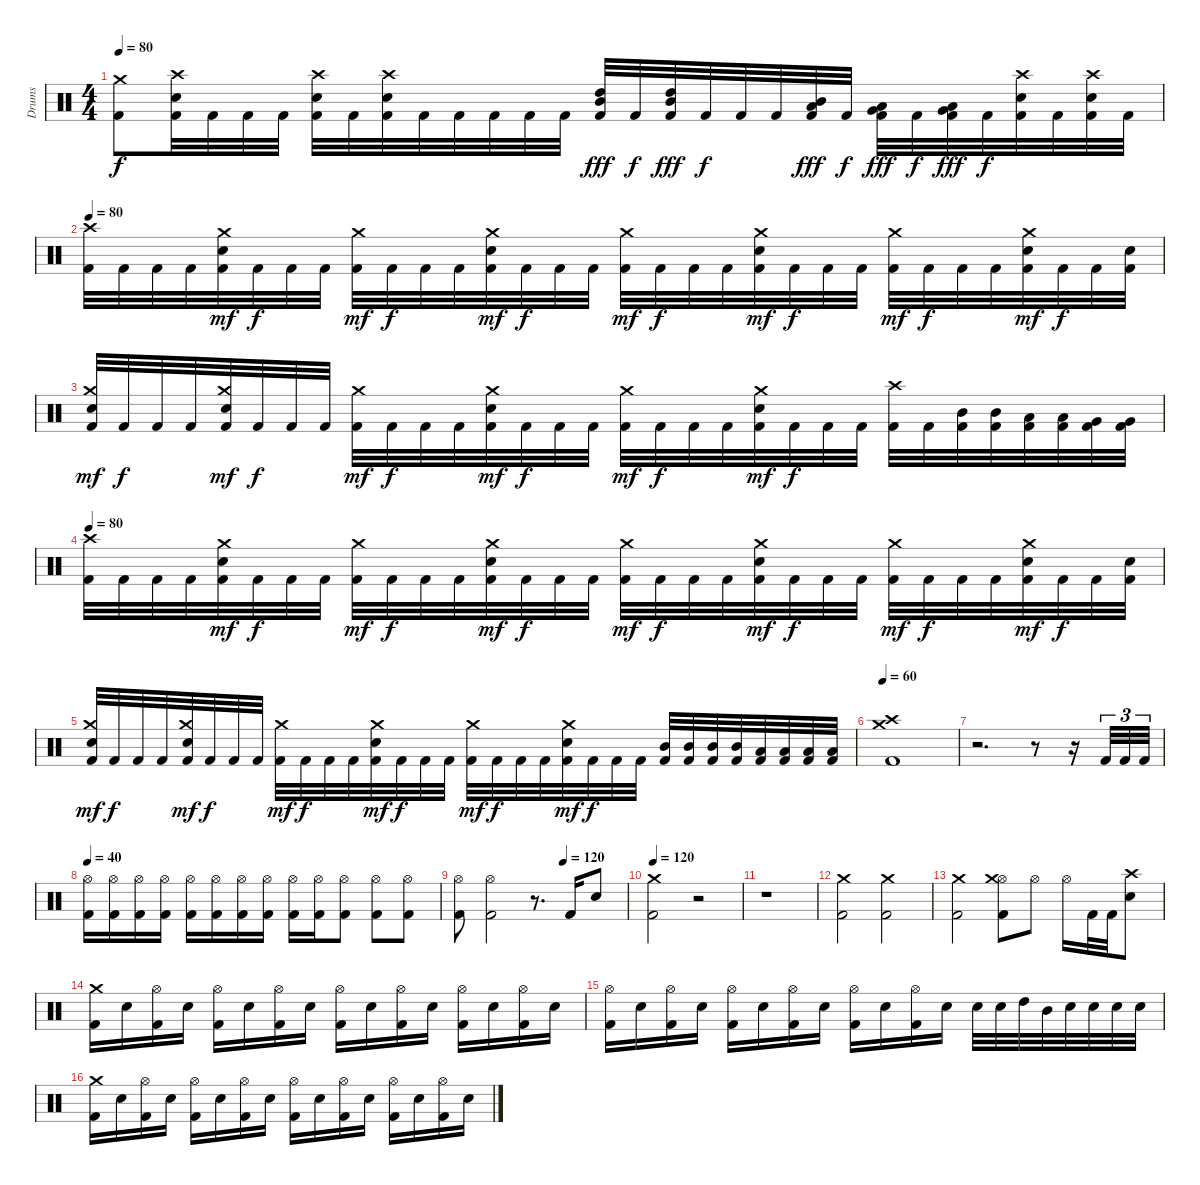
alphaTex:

\track ("Drums" "Drums") {instrument percussion}
\staff {score}
\articulation defaults
\ts (4 4)
\tempo 80
\clef neutral
\ks c
("Kick (hit) 2" "Crash medium (hit)").8{dy f} ("Kick (hit) 2" "Electric Snare (hit)" "Crash high (hit)").32 "Kick (hit) 2".32 "Kick (hit) 2".32 "Kick (hit) 2".32 ("Kick (hit) 2" "Electric Snare (hit)" "Crash high (hit)").32 "Kick (hit) 2".32 ("Kick (hit) 2" "Electric Snare (hit)" "Crash high (hit)").32 "Kick (hit) 2".32 "Kick (hit) 2".32 "Kick (hit) 2".32 "Kick (hit) 2".32 "Kick (hit) 2".32 ("Kick (hit) 2" "Mid Tom (hit)" "High Tom (hit)").32{dy fff} "Kick (hit) 2".32{dy f} ("Kick (hit) 2" "Mid Tom (hit)" "High Tom (hit)").32{dy fff} "Kick (hit) 2".32{dy f} "Kick (hit) 2".32 "Kick (hit) 2".32 ("Kick (hit) 2" "Low Tom (hit)" "Mid Tom (hit)").32{dy fff} "Kick (hit) 2".32{dy f} ("Kick (hit) 2" "Very Low Tom (hit)" "Low Tom (hit)").32{dy fff} "Kick (hit) 2".32{dy f} ("Kick (hit) 2" "Very Low Tom (hit)" "Low Tom (hit)").32{dy fff} "Kick (hit) 2".32{dy f} ("Kick (hit) 2" "Electric Snare (hit)" "Crash high (hit)").32 "Kick (hit) 2".32 ("Kick (hit) 2" "Electric Snare (hit)" "Crash high (hit)").32 "Kick (hit) 2".32 |
\tempo 80
("Kick (hit) 2" "Crash high (hit)").32 "Kick (hit) 2".32 "Kick (hit) 2".32 "Kick (hit) 2".32 ("Kick (hit) 2" "Electric Snare (hit)" "Crash medium (hit)").32{dy mf} "Kick (hit) 2".32{dy f} "Kick (hit) 2".32 "Kick (hit) 2".32 ("Kick (hit) 2" "Crash medium (hit)").32{dy mf} "Kick (hit) 2".32{dy f} "Kick (hit) 2".32 "Kick (hit) 2".32 ("Kick (hit) 2" "Electric Snare (hit)" "Crash medium (hit)").32{dy mf} "Kick (hit) 2".32{dy f} "Kick (hit) 2".32 "Kick (hit) 2".32 ("Kick (hit) 2" "Crash medium (hit)").32{dy mf} "Kick (hit) 2".32{dy f} "Kick (hit) 2".32 "Kick (hit) 2".32 ("Kick (hit) 2" "Electric Snare (hit)" "Crash medium (hit)").32{dy mf} "Kick (hit) 2".32{dy f} "Kick (hit) 2".32 "Kick (hit) 2".32 ("Kick (hit) 2" "Crash medium (hit)").32{dy mf} "Kick (hit) 2".32{dy f} "Kick (hit) 2".32 "Kick (hit) 2".32 ("Kick (hit) 2" "Electric Snare (hit)" "Crash medium (hit)").32{dy mf} "Kick (hit) 2".32{dy f} "Kick (hit) 2".32 ("Kick (hit) 2" "Electric Snare (hit)").32 |
("Kick (hit) 2" "Electric Snare (hit)" "Crash medium (hit)").32{dy mf} "Kick (hit) 2".32{dy f} "Kick (hit) 2".32 "Kick (hit) 2".32 ("Kick (hit) 2" "Electric Snare (hit)" "Crash medium (hit)").32{dy mf} "Kick (hit) 2".32{dy f} "Kick (hit) 2".32 "Kick (hit) 2".32 ("Kick (hit) 2" "Crash medium (hit)").32{dy mf} "Kick (hit) 2".32{dy f} "Kick (hit) 2".32 "Kick (hit) 2".32 ("Kick (hit) 2" "Electric Snare (hit)" "Crash medium (hit)").32{dy mf} "Kick (hit) 2".32{dy f} "Kick (hit) 2".32 "Kick (hit) 2".32 ("Kick (hit) 2" "Crash medium (hit)").32{dy mf} "Kick (hit) 2".32{dy f} "Kick (hit) 2".32 "Kick (hit) 2".32 ("Kick (hit) 2" "Electric Snare (hit)" "Crash medium (hit)").32{dy mf} "Kick (hit) 2".32{dy f} "Kick (hit) 2".32 "Kick (hit) 2".32 ("Kick (hit) 2" "Crash high (hit)").32 "Kick (hit) 2".32 ("Kick (hit) 2" "Mid Tom (hit)").32 ("Kick (hit) 2" "Mid Tom (hit)").32 ("Kick (hit) 2" "Low Tom (hit)").32 ("Kick (hit) 2" "Low Tom (hit)").32 ("Kick (hit) 2" "Very Low Tom (hit)").32 ("Kick (hit) 2" "Very Low Tom (hit)").32 |
\tempo 80
("Kick (hit) 2" "Crash high (hit)").32 "Kick (hit) 2".32 "Kick (hit) 2".32 "Kick (hit) 2".32 ("Kick (hit) 2" "Electric Snare (hit)" "Crash medium (hit)").32{dy mf} "Kick (hit) 2".32{dy f} "Kick (hit) 2".32 "Kick (hit) 2".32 ("Kick (hit) 2" "Crash medium (hit)").32{dy mf} "Kick (hit) 2".32{dy f} "Kick (hit) 2".32 "Kick (hit) 2".32 ("Kick (hit) 2" "Electric Snare (hit)" "Crash medium (hit)").32{dy mf} "Kick (hit) 2".32{dy f} "Kick (hit) 2".32 "Kick (hit) 2".32 ("Kick (hit) 2" "Crash medium (hit)").32{dy mf} "Kick (hit) 2".32{dy f} "Kick (hit) 2".32 "Kick (hit) 2".32 ("Kick (hit) 2" "Electric Snare (hit)" "Crash medium (hit)").32{dy mf} "Kick (hit) 2".32{dy f} "Kick (hit) 2".32 "Kick (hit) 2".32 ("Kick (hit) 2" "Crash medium (hit)").32{dy mf} "Kick (hit) 2".32{dy f} "Kick (hit) 2".32 "Kick (hit) 2".32 ("Kick (hit) 2" "Electric Snare (hit)" "Crash medium (hit)").32{dy mf} "Kick (hit) 2".32{dy f} "Kick (hit) 2".32 ("Kick (hit) 2" "Electric Snare (hit)").32 |
("Kick (hit) 2" "Electric Snare (hit)" "Crash medium (hit)").32{dy mf} "Kick (hit) 2".32{dy f} "Kick (hit) 2".32 "Kick (hit) 2".32 ("Kick (hit) 2" "Electric Snare (hit)" "Crash medium (hit)").32{dy mf} "Kick (hit) 2".32{dy f} "Kick (hit) 2".32 "Kick (hit) 2".32 ("Kick (hit) 2" "Crash medium (hit)").32{dy mf} "Kick (hit) 2".32{dy f} "Kick (hit) 2".32 "Kick (hit) 2".32 ("Kick (hit) 2" "Electric Snare (hit)" "Crash medium (hit)").32{dy mf} "Kick (hit) 2".32{dy f} "Kick (hit) 2".32 "Kick (hit) 2".32 ("Kick (hit) 2" "Crash medium (hit)").32{dy mf} "Kick (hit) 2".32{dy f} "Kick (hit) 2".32 "Kick (hit) 2".32 ("Kick (hit) 2" "Electric Snare (hit)" "Crash medium (hit)").32{dy mf} "Kick (hit) 2".32{dy f} "Kick (hit) 2".32 "Kick (hit) 2".32 ("Kick (hit) 2" "Mid Tom (hit)").32 ("Kick (hit) 2" "Mid Tom (hit)").32 ("Kick (hit) 2" "Mid Tom (hit)").32 ("Kick (hit) 2" "Mid Tom (hit)").32 ("Kick (hit) 2" "Low Tom (hit)").32 ("Kick (hit) 2" "Low Tom (hit)").32 ("Kick (hit) 2" "Low Tom (hit)").32 ("Kick (hit) 2" "Low Tom (hit)").32 |
\tempo 60
("Kick (hit) 2" "Crash high (hit)" "Crash medium (hit)").1 |
r.2{d} r.8 r.16 "Kick (hit) 2".32{tu (3 2)} "Kick (hit) 2".32{tu (3 2)} "Kick (hit) 2".32{tu (3 2)} |
\tempo 40
("Kick (hit) 2" "Hi-Hat (open)").16 ("Kick (hit) 2" "Hi-Hat (open)").16 ("Kick (hit) 2" "Hi-Hat (open)").16 ("Kick (hit) 2" "Hi-Hat (open)").16 ("Kick (hit) 2" "Hi-Hat (open)").16 ("Kick (hit) 2" "Hi-Hat (open)").16 ("Kick (hit) 2" "Hi-Hat (open)").16 ("Kick (hit) 2" "Hi-Hat (open)").16 ("Kick (hit) 2" "Hi-Hat (open)").16 ("Kick (hit) 2" "Hi-Hat (open)").16 ("Kick (hit) 2" "Hi-Hat (open)").8 ("Kick (hit) 2" "Hi-Hat (open)").8 ("Kick (hit) 2" "Hi-Hat (open)").8 |
\tempo (120 0.625)
("Kick (hit) 2" "Hi-Hat (open)").8 ("Kick (hit) 2" "Hi-Hat (open)").2 r.8{d} "Kick (hit) 2".16 "Electric Snare (hit)".8 |
\tempo 120
("Kick (hit) 2" "Crash medium (hit)").2 r.2 |
r.1 |
("Kick (hit) 2" "Crash medium (hit)").2 ("Kick (hit) 2" "Crash medium (hit)").2 |
("Kick (hit) 2" "Crash medium (hit)").2 ("Kick (hit) 2" "Hi-Hat (open)" "Crash medium (hit)").8 "Hi-Hat (open)".8 "Hi-Hat (open)".16 "Kick (hit) 2".32 "Kick (hit) 2".32 ("Electric Snare (hit)" "Crash high (hit)").8 |
("Kick (hit) 2" "Crash medium (hit)").16 "Electric Snare (hit)".16 ("Kick (hit) 2" "Hi-Hat (open)").16 "Electric Snare (hit)".16 ("Kick (hit) 2" "Hi-Hat (open)").16 "Electric Snare (hit)".16 ("Kick (hit) 2" "Hi-Hat (open)").16 "Electric Snare (hit)".16 ("Kick (hit) 2" "Hi-Hat (open)").16 "Electric Snare (hit)".16 ("Kick (hit) 2" "Hi-Hat (open)").16 "Electric Snare (hit)".16 ("Kick (hit) 2" "Hi-Hat (open)").16 "Electric Snare (hit)".16 ("Kick (hit) 2" "Hi-Hat (open)").16 "Electric Snare (hit)".16 |
("Kick (hit) 2" "Hi-Hat (open)").16 "Electric Snare (hit)".16 ("Kick (hit) 2" "Hi-Hat (open)").16 "Electric Snare (hit)".16 ("Kick (hit) 2" "Hi-Hat (open)").16 "Electric Snare (hit)".16 ("Kick (hit) 2" "Hi-Hat (open)").16 "Electric Snare (hit)".16 ("Kick (hit) 2" "Hi-Hat (open)").16 "Electric Snare (hit)".16 ("Kick (hit) 2" "Hi-Hat (open)").16 "Electric Snare (hit)".16 "Electric Snare (hit)".32 "Electric Snare (hit)".32 "High Tom (hit)".32 "Mid Tom (hit)".32 "Electric Snare (hit)".32 "Electric Snare (hit)".32 "Electric Snare (hit)".32 "Electric Snare (hit)".32 |
("Kick (hit) 2" "Crash medium (hit)").16 "Electric Snare (hit)".16 ("Kick (hit) 2" "Hi-Hat (open)").16 "Electric Snare (hit)".16 ("Kick (hit) 2" "Hi-Hat (open)").16 "Electric Snare (hit)".16 ("Kick (hit) 2" "Hi-Hat (open)").16 "Electric Snare (hit)".16 ("Kick (hit) 2" "Hi-Hat (open)").16 "Electric Snare (hit)".16 ("Kick (hit) 2" "Hi-Hat (open)").16 "Electric Snare (hit)".16 ("Kick (hit) 2" "Hi-Hat (open)").16 "Electric Snare (hit)".16 ("Kick (hit) 2" "Hi-Hat (open)").16 "Electric Snare (hit)".16
